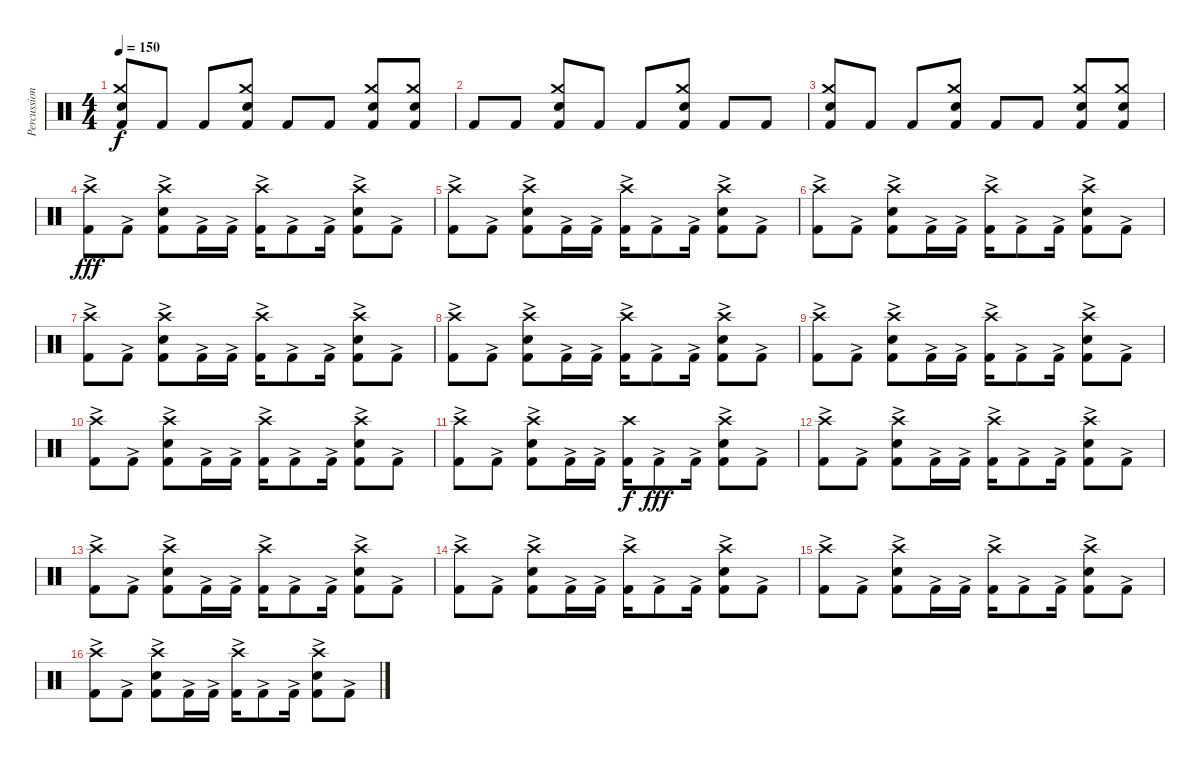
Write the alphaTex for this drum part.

\track ("Percussions" "Percussion") {instrument percussion}
\staff {score}
\articulation defaults
\ts (4 4)
\tempo 150
\clef neutral
\ks c
("Snare (hit) 2" "Crash medium (hit)" "Kick (hit) 2").8{dy f} "Kick (hit) 2".8 "Kick (hit) 2".8 ("Snare (hit) 2" "Crash medium (hit)" "Kick (hit) 2").8 "Kick (hit) 2".8 "Kick (hit) 2".8 ("Snare (hit) 2" "Crash medium (hit)" "Kick (hit) 2").8 ("Snare (hit) 2" "Crash medium (hit)" "Kick (hit) 2").8 |
"Kick (hit) 2".8 "Kick (hit) 2".8 ("Snare (hit) 2" "Crash medium (hit)" "Kick (hit) 2").8 "Kick (hit) 2".8 "Kick (hit) 2".8 ("Snare (hit) 2" "Crash medium (hit)" "Kick (hit) 2").8 "Kick (hit) 2".8 "Kick (hit) 2".8 |
("Snare (hit) 2" "Crash medium (hit)" "Kick (hit) 2").8 "Kick (hit) 2".8 "Kick (hit) 2".8 ("Snare (hit) 2" "Crash medium (hit)" "Kick (hit) 2").8 "Kick (hit) 2".8 "Kick (hit) 2".8 ("Snare (hit) 2" "Crash medium (hit)" "Kick (hit) 2").8 ("Snare (hit) 2" "Crash medium (hit)" "Kick (hit) 2").8 |
("Crash high (hit)" "Kick (hit) 2"{ac}).8{dy fff} "Kick (hit) 2"{ac}.8 ("Snare (hit) 2" "Crash high (hit)" "Kick (hit) 2"{ac}).8 "Kick (hit) 2"{ac}.16 "Kick (hit) 2"{ac}.16 ("Crash high (hit)" "Kick (hit) 2"{ac}).16 "Kick (hit) 2"{ac}.8 "Kick (hit) 2"{ac}.16 ("Snare (hit) 2" "Crash high (hit)" "Kick (hit) 2"{ac}).8 "Kick (hit) 2"{ac}.8 |
("Crash high (hit)" "Kick (hit) 2"{ac}).8 "Kick (hit) 2"{ac}.8 ("Snare (hit) 2" "Crash high (hit)" "Kick (hit) 2"{ac}).8 "Kick (hit) 2"{ac}.16 "Kick (hit) 2"{ac}.16 ("Crash high (hit)" "Kick (hit) 2"{ac}).16 "Kick (hit) 2"{ac}.8 "Kick (hit) 2"{ac}.16 ("Snare (hit) 2" "Crash high (hit)" "Kick (hit) 2"{ac}).8 "Kick (hit) 2"{ac}.8 |
("Crash high (hit)" "Kick (hit) 2"{ac}).8 "Kick (hit) 2"{ac}.8 ("Snare (hit) 2" "Crash high (hit)" "Kick (hit) 2"{ac}).8 "Kick (hit) 2"{ac}.16 "Kick (hit) 2"{ac}.16 ("Crash high (hit)" "Kick (hit) 2"{ac}).16 "Kick (hit) 2"{ac}.8 "Kick (hit) 2"{ac}.16 ("Snare (hit) 2" "Crash high (hit)" "Kick (hit) 2"{ac}).8 "Kick (hit) 2"{ac}.8 |
("Crash high (hit)" "Kick (hit) 2"{ac}).8 "Kick (hit) 2"{ac}.8 ("Snare (hit) 2" "Crash high (hit)" "Kick (hit) 2"{ac}).8 "Kick (hit) 2"{ac}.16 "Kick (hit) 2"{ac}.16 ("Crash high (hit)" "Kick (hit) 2"{ac}).16 "Kick (hit) 2"{ac}.8 "Kick (hit) 2"{ac}.16 ("Snare (hit) 2" "Crash high (hit)" "Kick (hit) 2"{ac}).8 "Kick (hit) 2"{ac}.8 |
("Crash high (hit)" "Kick (hit) 2"{ac}).8 "Kick (hit) 2"{ac}.8 ("Snare (hit) 2" "Crash high (hit)" "Kick (hit) 2"{ac}).8 "Kick (hit) 2"{ac}.16 "Kick (hit) 2"{ac}.16 ("Crash high (hit)" "Kick (hit) 2"{ac}).16 "Kick (hit) 2"{ac}.8 "Kick (hit) 2"{ac}.16 ("Snare (hit) 2" "Crash high (hit)" "Kick (hit) 2"{ac}).8 "Kick (hit) 2"{ac}.8 |
("Crash high (hit)" "Kick (hit) 2"{ac}).8 "Kick (hit) 2"{ac}.8 ("Snare (hit) 2" "Crash high (hit)" "Kick (hit) 2"{ac}).8 "Kick (hit) 2"{ac}.16 "Kick (hit) 2"{ac}.16 ("Crash high (hit)" "Kick (hit) 2"{ac}).16 "Kick (hit) 2"{ac}.8 "Kick (hit) 2"{ac}.16 ("Snare (hit) 2" "Crash high (hit)" "Kick (hit) 2"{ac}).8 "Kick (hit) 2"{ac}.8 |
("Crash high (hit)" "Kick (hit) 2"{ac}).8 "Kick (hit) 2"{ac}.8 ("Snare (hit) 2" "Crash high (hit)" "Kick (hit) 2"{ac}).8 "Kick (hit) 2"{ac}.16 "Kick (hit) 2"{ac}.16 ("Crash high (hit)" "Kick (hit) 2"{ac}).16 "Kick (hit) 2"{ac}.8 "Kick (hit) 2"{ac}.16 ("Snare (hit) 2" "Crash high (hit)" "Kick (hit) 2"{ac}).8 "Kick (hit) 2"{ac}.8 |
("Crash high (hit)" "Kick (hit) 2"{ac}).8 "Kick (hit) 2"{ac}.8 ("Snare (hit) 2" "Crash high (hit)" "Kick (hit) 2"{ac}).8 "Kick (hit) 2"{ac}.16 "Kick (hit) 2"{ac}.16 ("Crash high (hit)" "Kick (hit) 2").16{dy f} "Kick (hit) 2"{ac}.8{dy fff} "Kick (hit) 2"{ac}.16 ("Snare (hit) 2" "Crash high (hit)" "Kick (hit) 2"{ac}).8 "Kick (hit) 2"{ac}.8 |
("Crash high (hit)" "Kick (hit) 2"{ac}).8 "Kick (hit) 2"{ac}.8 ("Snare (hit) 2" "Crash high (hit)" "Kick (hit) 2"{ac}).8 "Kick (hit) 2"{ac}.16 "Kick (hit) 2"{ac}.16 ("Crash high (hit)" "Kick (hit) 2"{ac}).16 "Kick (hit) 2"{ac}.8 "Kick (hit) 2"{ac}.16 ("Snare (hit) 2" "Crash high (hit)" "Kick (hit) 2"{ac}).8 "Kick (hit) 2"{ac}.8 |
("Crash high (hit)" "Kick (hit) 2"{ac}).8 "Kick (hit) 2"{ac}.8 ("Snare (hit) 2" "Crash high (hit)" "Kick (hit) 2"{ac}).8 "Kick (hit) 2"{ac}.16 "Kick (hit) 2"{ac}.16 ("Crash high (hit)" "Kick (hit) 2"{ac}).16 "Kick (hit) 2"{ac}.8 "Kick (hit) 2"{ac}.16 ("Snare (hit) 2" "Crash high (hit)" "Kick (hit) 2"{ac}).8 "Kick (hit) 2"{ac}.8 |
("Crash high (hit)" "Kick (hit) 2"{ac}).8 "Kick (hit) 2"{ac}.8 ("Snare (hit) 2" "Crash high (hit)" "Kick (hit) 2"{ac}).8 "Kick (hit) 2"{ac}.16 "Kick (hit) 2"{ac}.16 ("Crash high (hit)" "Kick (hit) 2"{ac}).16 "Kick (hit) 2"{ac}.8 "Kick (hit) 2"{ac}.16 ("Snare (hit) 2" "Crash high (hit)" "Kick (hit) 2"{ac}).8 "Kick (hit) 2"{ac}.8 |
("Crash high (hit)" "Kick (hit) 2"{ac}).8 "Kick (hit) 2"{ac}.8 ("Snare (hit) 2" "Crash high (hit)" "Kick (hit) 2"{ac}).8 "Kick (hit) 2"{ac}.16 "Kick (hit) 2"{ac}.16 ("Crash high (hit)" "Kick (hit) 2"{ac}).16 "Kick (hit) 2"{ac}.8 "Kick (hit) 2"{ac}.16 ("Snare (hit) 2" "Crash high (hit)" "Kick (hit) 2"{ac}).8 "Kick (hit) 2"{ac}.8 |
("Crash high (hit)" "Kick (hit) 2"{ac}).8 "Kick (hit) 2"{ac}.8 ("Snare (hit) 2" "Crash high (hit)" "Kick (hit) 2"{ac}).8 "Kick (hit) 2"{ac}.16 "Kick (hit) 2"{ac}.16 ("Crash high (hit)" "Kick (hit) 2"{ac}).16 "Kick (hit) 2"{ac}.8 "Kick (hit) 2"{ac}.16 ("Snare (hit) 2" "Crash high (hit)" "Kick (hit) 2"{ac}).8 "Kick (hit) 2"{ac}.8
